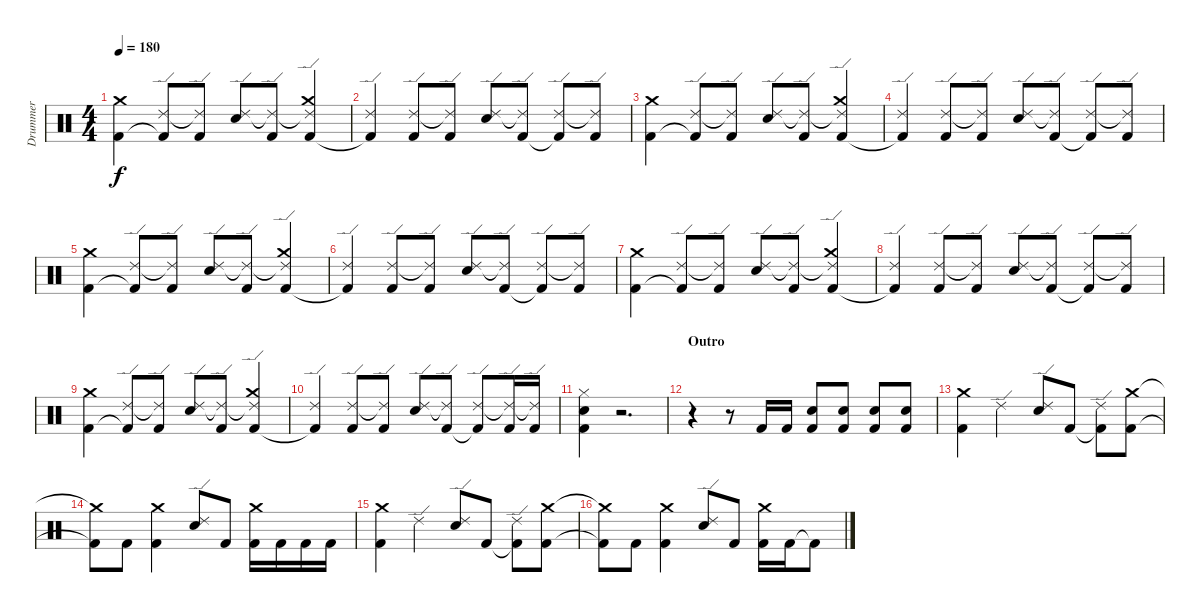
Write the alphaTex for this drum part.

\track ("Drummer" "Drummer") {instrument percussion}
\staff {score}
\articulation defaults
\ts (4 4)
\tempo 180
\clef neutral
\ks c
("Kick (hit) 2" "Crash medium (hit)").4{dy f} ("Kick (hit) 2"{t} "Ride (edge) 2").8 ("Kick (hit) 2" "Ride (edge) 2"{t}).8 ("Snare (hit) 2" "Ride (edge) 2").8 ("Kick (hit) 2" "Ride (edge) 2"{t}).8 ("Kick (hit) 2" "Ride (edge) 2"{t} "Crash medium (hit)").4 |
("Kick (hit) 2"{t} "Ride (edge) 2").4 ("Kick (hit) 2" "Ride (edge) 2").8 ("Kick (hit) 2" "Ride (edge) 2"{t}).8 ("Snare (hit) 2" "Ride (edge) 2").8 ("Kick (hit) 2" "Ride (edge) 2"{t}).8 ("Kick (hit) 2"{t} "Ride (edge) 2").8 ("Kick (hit) 2" "Ride (edge) 2"{t}).8 |
("Kick (hit) 2" "Crash medium (hit)").4 ("Kick (hit) 2"{t} "Ride (edge) 2").8 ("Kick (hit) 2" "Ride (edge) 2"{t}).8 ("Snare (hit) 2" "Ride (edge) 2").8 ("Kick (hit) 2" "Ride (edge) 2"{t}).8 ("Kick (hit) 2" "Ride (edge) 2"{t} "Crash medium (hit)").4 |
("Kick (hit) 2"{t} "Ride (edge) 2").4 ("Kick (hit) 2" "Ride (edge) 2").8 ("Kick (hit) 2" "Ride (edge) 2"{t}).8 ("Snare (hit) 2" "Ride (edge) 2").8 ("Kick (hit) 2" "Ride (edge) 2"{t}).8 ("Kick (hit) 2"{t} "Ride (edge) 2").8 ("Kick (hit) 2" "Ride (edge) 2"{t}).8 |
("Kick (hit) 2" "Crash medium (hit)").4 ("Kick (hit) 2"{t} "Ride (edge) 2").8 ("Kick (hit) 2" "Ride (edge) 2"{t}).8 ("Snare (hit) 2" "Ride (edge) 2").8 ("Kick (hit) 2" "Ride (edge) 2"{t}).8 ("Kick (hit) 2" "Ride (edge) 2"{t} "Crash medium (hit)").4 |
("Kick (hit) 2"{t} "Ride (edge) 2").4 ("Kick (hit) 2" "Ride (edge) 2").8 ("Kick (hit) 2" "Ride (edge) 2"{t}).8 ("Snare (hit) 2" "Ride (edge) 2").8 ("Kick (hit) 2" "Ride (edge) 2"{t}).8 ("Kick (hit) 2"{t} "Ride (edge) 2").8 ("Kick (hit) 2" "Ride (edge) 2"{t}).8 |
("Kick (hit) 2" "Crash medium (hit)").4 ("Kick (hit) 2"{t} "Ride (edge) 2").8 ("Kick (hit) 2" "Ride (edge) 2"{t}).8 ("Snare (hit) 2" "Ride (edge) 2").8 ("Kick (hit) 2" "Ride (edge) 2"{t}).8 ("Kick (hit) 2" "Ride (edge) 2"{t} "Crash medium (hit)").4 |
("Kick (hit) 2"{t} "Ride (edge) 2").4 ("Kick (hit) 2" "Ride (edge) 2").8 ("Kick (hit) 2" "Ride (edge) 2"{t}).8 ("Snare (hit) 2" "Ride (edge) 2").8 ("Kick (hit) 2" "Ride (edge) 2"{t}).8 ("Kick (hit) 2"{t} "Ride (edge) 2").8 ("Kick (hit) 2" "Ride (edge) 2"{t}).8 |
("Kick (hit) 2" "Crash medium (hit)").4 ("Kick (hit) 2"{t} "Ride (edge) 2").8 ("Kick (hit) 2" "Ride (edge) 2"{t}).8 ("Snare (hit) 2" "Ride (edge) 2").8 ("Kick (hit) 2" "Ride (edge) 2"{t}).8 ("Kick (hit) 2" "Ride (edge) 2"{t} "Crash medium (hit)").4 |
("Kick (hit) 2"{t} "Ride (edge) 2").4 ("Kick (hit) 2" "Ride (edge) 2").8 ("Kick (hit) 2" "Ride (edge) 2"{t}).8 ("Snare (hit) 2" "Ride (edge) 2").8 ("Kick (hit) 2" "Ride (edge) 2"{t}).8 ("Kick (hit) 2"{t} "Ride (edge) 2").8 ("Kick (hit) 2" "Ride (edge) 2"{t}).16 ("Kick (hit) 2" "Ride (edge) 2"{t}).16 |
("Kick (hit) 2" "Electric Snare (hit)" "Hi-Hat (closed)").4 r.2{d} |
\section ("" "Outro")
r.4 r.8 "Kick (hit) 2".16 "Kick (hit) 2".16 ("Kick (hit) 2" "Electric Snare (hit)").8 ("Kick (hit) 2" "Electric Snare (hit)").8 ("Kick (hit) 2" "Electric Snare (hit)").8 ("Kick (hit) 2" "Electric Snare (hit)").8 |
("Kick (hit) 2" "Crash medium (hit)").4 "Ride (edge) 2".4 ("Snare (hit) 2" "Ride (edge) 2").8 "Kick (hit) 2".8 ("Kick (hit) 2"{t} "Ride (edge) 2").8 ("Kick (hit) 2" "Crash medium (hit)").8 |
("Kick (hit) 2"{t} "Crash medium (hit)"{t}).8 "Kick (hit) 2".8 ("Kick (hit) 2" "Crash medium (hit)").4 ("Snare (hit) 2" "Ride (edge) 2").8 "Kick (hit) 2".8 ("Kick (hit) 2" "Crash medium (hit)").16 "Kick (hit) 2".16 "Kick (hit) 2".16 "Kick (hit) 2".16 |
("Kick (hit) 2" "Crash medium (hit)").4 "Ride (edge) 2".4 ("Snare (hit) 2" "Ride (edge) 2").8 "Kick (hit) 2".8 ("Kick (hit) 2"{t} "Ride (edge) 2").8 ("Kick (hit) 2" "Crash medium (hit)").8 |
("Kick (hit) 2"{t} "Crash medium (hit)"{t}).8 "Kick (hit) 2".8 ("Kick (hit) 2" "Crash medium (hit)").4 ("Snare (hit) 2" "Ride (edge) 2").8 "Kick (hit) 2".8 ("Kick (hit) 2" "Crash medium (hit)").16 "Kick (hit) 2".16 "Kick (hit) 2"{t}.8
